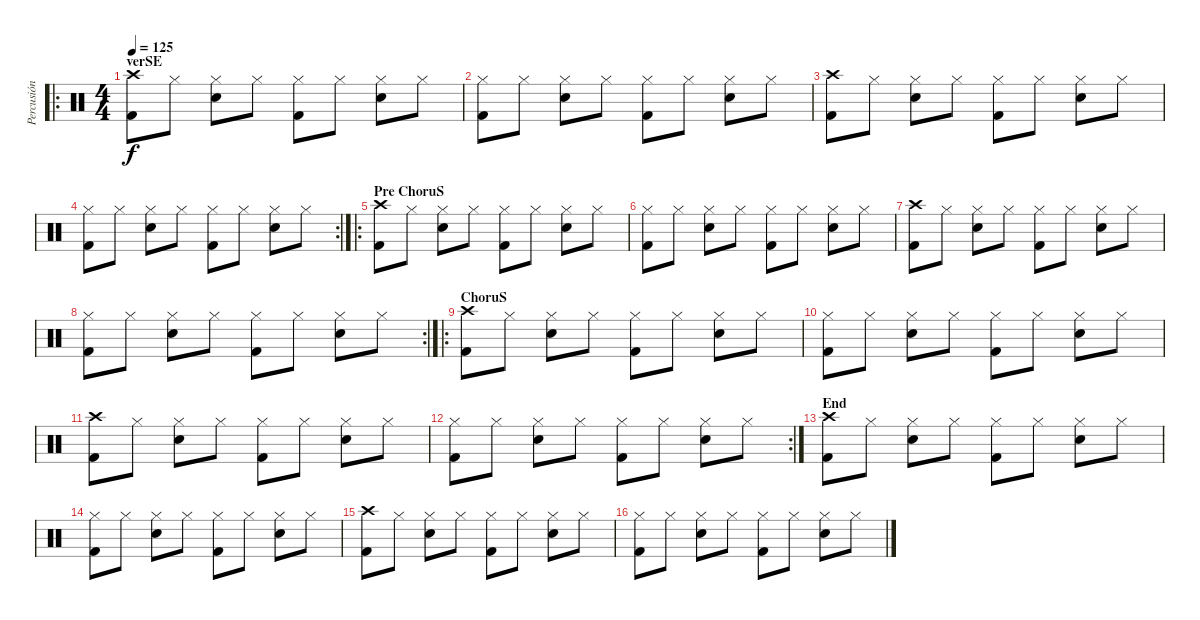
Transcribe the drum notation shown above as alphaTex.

\track ("Percusión" "Percusión") {instrument percussion}
\staff {score}
\articulation defaults
\ro
\ts (4 4)
\section ("" "verSE")
\tempo 125
\clef neutral
\ks c
("Crash high (hit)" "Kick (hit) 2").8{dy f} "Hi-Hat (closed)".8 ("Hi-Hat (closed)" "Electric Snare (hit)").8 "Hi-Hat (closed)".8 ("Hi-Hat (closed)" "Kick (hit) 2").8 "Hi-Hat (closed)".8 ("Hi-Hat (closed)" "Electric Snare (hit)").8 "Hi-Hat (closed)".8 |
("Hi-Hat (closed)" "Kick (hit) 2").8 "Hi-Hat (closed)".8 ("Hi-Hat (closed)" "Electric Snare (hit)").8 "Hi-Hat (closed)".8 ("Hi-Hat (closed)" "Kick (hit) 2").8 "Hi-Hat (closed)".8 ("Hi-Hat (closed)" "Electric Snare (hit)").8 "Hi-Hat (closed)".8 |
("Crash high (hit)" "Kick (hit) 2").8 "Hi-Hat (closed)".8 ("Hi-Hat (closed)" "Electric Snare (hit)").8 "Hi-Hat (closed)".8 ("Hi-Hat (closed)" "Kick (hit) 2").8 "Hi-Hat (closed)".8 ("Hi-Hat (closed)" "Electric Snare (hit)").8 "Hi-Hat (closed)".8 |
\rc 2
("Hi-Hat (closed)" "Kick (hit) 2").8 "Hi-Hat (closed)".8 ("Hi-Hat (closed)" "Electric Snare (hit)").8 "Hi-Hat (closed)".8 ("Hi-Hat (closed)" "Kick (hit) 2").8 "Hi-Hat (closed)".8 ("Hi-Hat (closed)" "Electric Snare (hit)").8 "Hi-Hat (closed)".8 |
\ro
\section ("" "Pre ChoruS")
("Crash high (hit)" "Kick (hit) 2").8 "Hi-Hat (closed)".8 ("Hi-Hat (closed)" "Electric Snare (hit)").8 "Hi-Hat (closed)".8 ("Hi-Hat (closed)" "Kick (hit) 2").8 "Hi-Hat (closed)".8 ("Hi-Hat (closed)" "Electric Snare (hit)").8 "Hi-Hat (closed)".8 |
("Hi-Hat (closed)" "Kick (hit) 2").8 "Hi-Hat (closed)".8 ("Hi-Hat (closed)" "Electric Snare (hit)").8 "Hi-Hat (closed)".8 ("Hi-Hat (closed)" "Kick (hit) 2").8 "Hi-Hat (closed)".8 ("Hi-Hat (closed)" "Electric Snare (hit)").8 "Hi-Hat (closed)".8 |
("Crash high (hit)" "Kick (hit) 2").8 "Hi-Hat (closed)".8 ("Hi-Hat (closed)" "Electric Snare (hit)").8 "Hi-Hat (closed)".8 ("Hi-Hat (closed)" "Kick (hit) 2").8 "Hi-Hat (closed)".8 ("Hi-Hat (closed)" "Electric Snare (hit)").8 "Hi-Hat (closed)".8 |
\rc 2
("Hi-Hat (closed)" "Kick (hit) 2").8 "Hi-Hat (closed)".8 ("Hi-Hat (closed)" "Electric Snare (hit)").8 "Hi-Hat (closed)".8 ("Hi-Hat (closed)" "Kick (hit) 2").8 "Hi-Hat (closed)".8 ("Hi-Hat (closed)" "Electric Snare (hit)").8 "Hi-Hat (closed)".8 |
\ro
\section ("" "ChoruS")
("Crash high (hit)" "Kick (hit) 2").8 "Hi-Hat (closed)".8 ("Hi-Hat (closed)" "Electric Snare (hit)").8 "Hi-Hat (closed)".8 ("Hi-Hat (closed)" "Kick (hit) 2").8 "Hi-Hat (closed)".8 ("Hi-Hat (closed)" "Electric Snare (hit)").8 "Hi-Hat (closed)".8 |
("Hi-Hat (closed)" "Kick (hit) 2").8 "Hi-Hat (closed)".8 ("Hi-Hat (closed)" "Electric Snare (hit)").8 "Hi-Hat (closed)".8 ("Hi-Hat (closed)" "Kick (hit) 2").8 "Hi-Hat (closed)".8 ("Hi-Hat (closed)" "Electric Snare (hit)").8 "Hi-Hat (closed)".8 |
("Crash high (hit)" "Kick (hit) 2").8 "Hi-Hat (closed)".8 ("Hi-Hat (closed)" "Electric Snare (hit)").8 "Hi-Hat (closed)".8 ("Hi-Hat (closed)" "Kick (hit) 2").8 "Hi-Hat (closed)".8 ("Hi-Hat (closed)" "Electric Snare (hit)").8 "Hi-Hat (closed)".8 |
\rc 2
("Hi-Hat (closed)" "Kick (hit) 2").8 "Hi-Hat (closed)".8 ("Hi-Hat (closed)" "Electric Snare (hit)").8 "Hi-Hat (closed)".8 ("Hi-Hat (closed)" "Kick (hit) 2").8 "Hi-Hat (closed)".8 ("Hi-Hat (closed)" "Electric Snare (hit)").8 "Hi-Hat (closed)".8 |
\section ("" "End")
("Crash high (hit)" "Kick (hit) 2").8 "Hi-Hat (closed)".8 ("Hi-Hat (closed)" "Electric Snare (hit)").8 "Hi-Hat (closed)".8 ("Hi-Hat (closed)" "Kick (hit) 2").8 "Hi-Hat (closed)".8 ("Hi-Hat (closed)" "Electric Snare (hit)").8 "Hi-Hat (closed)".8 |
("Hi-Hat (closed)" "Kick (hit) 2").8{volume 5} "Hi-Hat (closed)".8 ("Hi-Hat (closed)" "Electric Snare (hit)").8 "Hi-Hat (closed)".8 ("Hi-Hat (closed)" "Kick (hit) 2").8 "Hi-Hat (closed)".8 ("Hi-Hat (closed)" "Electric Snare (hit)").8 "Hi-Hat (closed)".8 |
("Crash high (hit)" "Kick (hit) 2").8 "Hi-Hat (closed)".8 ("Hi-Hat (closed)" "Electric Snare (hit)").8 "Hi-Hat (closed)".8 ("Hi-Hat (closed)" "Kick (hit) 2").8 "Hi-Hat (closed)".8 ("Hi-Hat (closed)" "Electric Snare (hit)").8 "Hi-Hat (closed)".8 |
("Hi-Hat (closed)" "Kick (hit) 2").8{volume 0} "Hi-Hat (closed)".8 ("Hi-Hat (closed)" "Electric Snare (hit)").8 "Hi-Hat (closed)".8 ("Hi-Hat (closed)" "Kick (hit) 2").8 "Hi-Hat (closed)".8 ("Hi-Hat (closed)" "Electric Snare (hit)").8 "Hi-Hat (closed)".8
